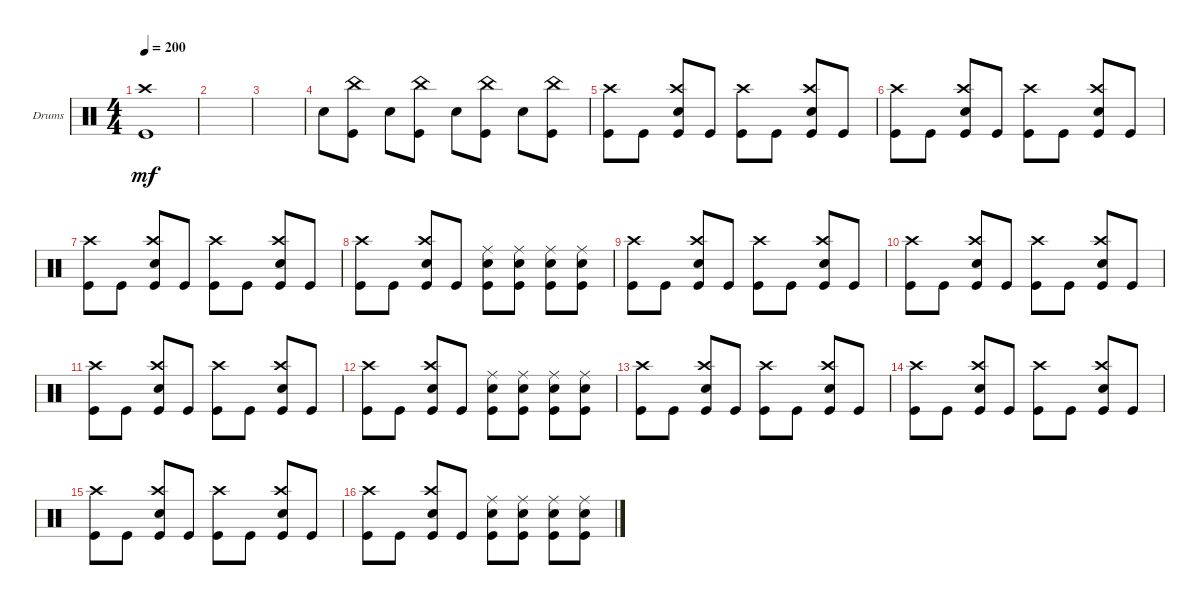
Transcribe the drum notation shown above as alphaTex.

\bracketExtendMode groupsimilarinstruments
\firstSystemTrackNameOrientation horizontal
\otherSystemsTrackNameOrientation horizontal
\track ("Drumkit" "Drums") {instrument percussion}
\staff {score}
\articulation defaults
\ts (4 4)
\tempo 200
\clef neutral
\ks c
("Kick (hit)" "Crash high (hit)").1{dy mf} |
|
|
"Snare (hit) 2".8 ("Kick (hit)" "China (hit)").8 "Snare (hit) 2".8 ("Kick (hit)" "China (hit)").8 "Snare (hit) 2".8 ("Kick (hit)" "China (hit)").8 "Snare (hit) 2".8 ("Kick (hit)" "China (hit)").8 |
("Kick (hit)" "Crash high (hit)").8 "Kick (hit)".8 ("Kick (hit)" "Snare (hit) 2" "Crash high (hit)").8 "Kick (hit)".8 ("Kick (hit)" "Crash high (hit)").8 "Kick (hit)".8 ("Kick (hit)" "Snare (hit) 2" "Crash high (hit)").8 "Kick (hit)".8 |
("Kick (hit)" "Crash high (hit)").8 "Kick (hit)".8 ("Kick (hit)" "Snare (hit) 2" "Crash high (hit)").8 "Kick (hit)".8 ("Kick (hit)" "Crash high (hit)").8 "Kick (hit)".8 ("Kick (hit)" "Snare (hit) 2" "Crash high (hit)").8 "Kick (hit)".8 |
("Kick (hit)" "Crash high (hit)").8 "Kick (hit)".8 ("Kick (hit)" "Snare (hit) 2" "Crash high (hit)").8 "Kick (hit)".8 ("Kick (hit)" "Crash high (hit)").8 "Kick (hit)".8 ("Kick (hit)" "Snare (hit) 2" "Crash high (hit)").8 "Kick (hit)".8 |
("Kick (hit)" "Crash high (hit)").8 "Kick (hit)".8 ("Kick (hit)" "Snare (hit) 2" "Crash high (hit)").8 "Kick (hit)".8 ("Kick (hit)" "Snare (hit) 2" "Ride (middle)").8 ("Kick (hit)" "Snare (hit) 2" "Ride (middle)").8 ("Kick (hit)" "Snare (hit) 2" "Ride (middle)").8 ("Kick (hit)" "Snare (hit) 2" "Ride (middle)").8 |
("Kick (hit)" "Crash high (hit)").8 "Kick (hit)".8 ("Kick (hit)" "Snare (hit) 2" "Crash high (hit)").8 "Kick (hit)".8 ("Kick (hit)" "Crash high (hit)").8 "Kick (hit)".8 ("Kick (hit)" "Snare (hit) 2" "Crash high (hit)").8 "Kick (hit)".8 |
("Kick (hit)" "Crash high (hit)").8 "Kick (hit)".8 ("Kick (hit)" "Snare (hit) 2" "Crash high (hit)").8 "Kick (hit)".8 ("Kick (hit)" "Crash high (hit)").8 "Kick (hit)".8 ("Kick (hit)" "Snare (hit) 2" "Crash high (hit)").8 "Kick (hit)".8 |
("Kick (hit)" "Crash high (hit)").8 "Kick (hit)".8 ("Kick (hit)" "Snare (hit) 2" "Crash high (hit)").8 "Kick (hit)".8 ("Kick (hit)" "Crash high (hit)").8 "Kick (hit)".8 ("Kick (hit)" "Snare (hit) 2" "Crash high (hit)").8 "Kick (hit)".8 |
("Kick (hit)" "Crash high (hit)").8 "Kick (hit)".8 ("Kick (hit)" "Snare (hit) 2" "Crash high (hit)").8 "Kick (hit)".8 ("Kick (hit)" "Snare (hit) 2" "Ride (middle)").8 ("Kick (hit)" "Snare (hit) 2" "Ride (middle)").8 ("Kick (hit)" "Snare (hit) 2" "Ride (middle)").8 ("Kick (hit)" "Snare (hit) 2" "Ride (middle)").8 |
("Kick (hit)" "Crash high (hit)").8 "Kick (hit)".8 ("Kick (hit)" "Snare (hit) 2" "Crash high (hit)").8 "Kick (hit)".8 ("Kick (hit)" "Crash high (hit)").8 "Kick (hit)".8 ("Kick (hit)" "Snare (hit) 2" "Crash high (hit)").8 "Kick (hit)".8 |
("Kick (hit)" "Crash high (hit)").8 "Kick (hit)".8 ("Kick (hit)" "Snare (hit) 2" "Crash high (hit)").8 "Kick (hit)".8 ("Kick (hit)" "Crash high (hit)").8 "Kick (hit)".8 ("Kick (hit)" "Snare (hit) 2" "Crash high (hit)").8 "Kick (hit)".8 |
("Kick (hit)" "Crash high (hit)").8 "Kick (hit)".8 ("Kick (hit)" "Snare (hit) 2" "Crash high (hit)").8 "Kick (hit)".8 ("Kick (hit)" "Crash high (hit)").8 "Kick (hit)".8 ("Kick (hit)" "Snare (hit) 2" "Crash high (hit)").8 "Kick (hit)".8 |
("Kick (hit)" "Crash high (hit)").8 "Kick (hit)".8 ("Kick (hit)" "Snare (hit) 2" "Crash high (hit)").8 "Kick (hit)".8 ("Kick (hit)" "Snare (hit) 2" "Ride (middle)").8 ("Kick (hit)" "Snare (hit) 2" "Ride (middle)").8 ("Kick (hit)" "Snare (hit) 2" "Ride (middle)").8 ("Kick (hit)" "Snare (hit) 2" "Ride (middle)").8
